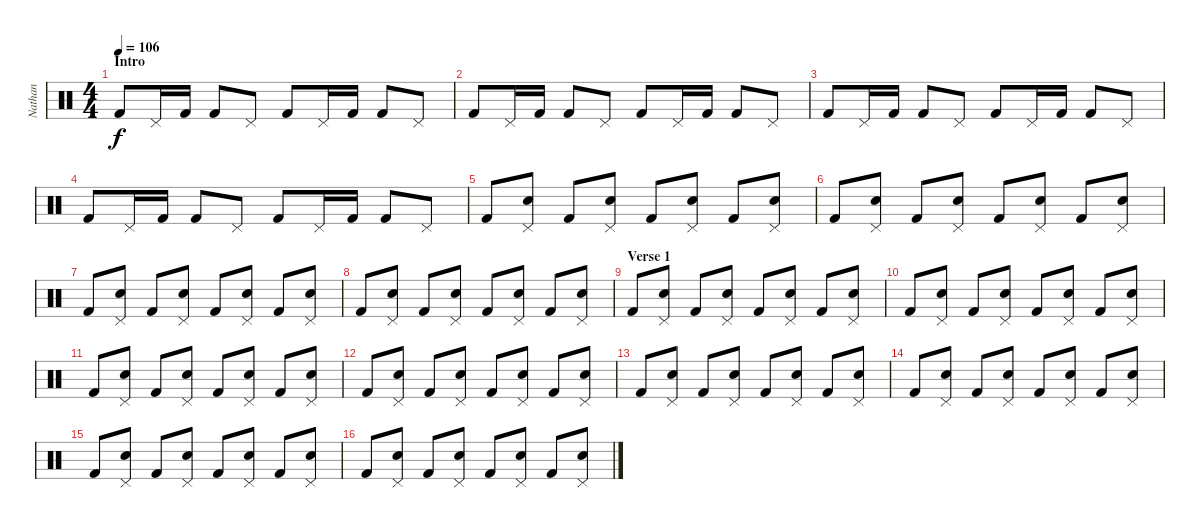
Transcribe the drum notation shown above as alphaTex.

\track ("Nathan" "Nathan") {instrument percussion}
\staff {score}
\articulation defaults
\ts (4 4)
\section ("" "Intro")
\tempo 106
\clef neutral
\ks c "Kick (hit) 2".8{dy f} "Pedal Hi-Hat (hit)".16 "Kick (hit) 2".16 "Kick (hit) 2".8 "Pedal Hi-Hat (hit)".8 "Kick (hit) 2".8 "Pedal Hi-Hat (hit)".16 "Kick (hit) 2".16 "Kick (hit) 2".8 "Pedal Hi-Hat (hit)".8
|
"Kick (hit) 2".8 "Pedal Hi-Hat (hit)".16 "Kick (hit) 2".16 "Kick (hit) 2".8 "Pedal Hi-Hat (hit)".8 "Kick (hit) 2".8 "Pedal Hi-Hat (hit)".16 "Kick (hit) 2".16 "Kick (hit) 2".8 "Pedal Hi-Hat (hit)".8 |
"Kick (hit) 2".8 "Pedal Hi-Hat (hit)".16 "Kick (hit) 2".16 "Kick (hit) 2".8 "Pedal Hi-Hat (hit)".8 "Kick (hit) 2".8 "Pedal Hi-Hat (hit)".16 "Kick (hit) 2".16 "Kick (hit) 2".8 "Pedal Hi-Hat (hit)".8 |
"Kick (hit) 2".8 "Pedal Hi-Hat (hit)".16 "Kick (hit) 2".16 "Kick (hit) 2".8 "Pedal Hi-Hat (hit)".8 "Kick (hit) 2".8 "Pedal Hi-Hat (hit)".16 "Kick (hit) 2".16 "Kick (hit) 2".8 "Pedal Hi-Hat (hit)".8 |
"Kick (hit) 2".8 ("Pedal Hi-Hat (hit)" "Snare (hit) 2").8 "Kick (hit) 2".8 ("Pedal Hi-Hat (hit)" "Snare (hit) 2").8 "Kick (hit) 2".8 ("Pedal Hi-Hat (hit)" "Snare (hit) 2").8 "Kick (hit) 2".8 ("Pedal Hi-Hat (hit)" "Snare (hit) 2").8 |
"Kick (hit) 2".8 ("Pedal Hi-Hat (hit)" "Snare (hit) 2").8 "Kick (hit) 2".8 ("Pedal Hi-Hat (hit)" "Snare (hit) 2").8 "Kick (hit) 2".8 ("Pedal Hi-Hat (hit)" "Snare (hit) 2").8 "Kick (hit) 2".8 ("Pedal Hi-Hat (hit)" "Snare (hit) 2").8 |
"Kick (hit) 2".8 ("Pedal Hi-Hat (hit)" "Snare (hit) 2").8 "Kick (hit) 2".8 ("Pedal Hi-Hat (hit)" "Snare (hit) 2").8 "Kick (hit) 2".8 ("Pedal Hi-Hat (hit)" "Snare (hit) 2").8 "Kick (hit) 2".8 ("Pedal Hi-Hat (hit)" "Snare (hit) 2").8 |
"Kick (hit) 2".8 ("Pedal Hi-Hat (hit)" "Snare (hit) 2").8 "Kick (hit) 2".8 ("Pedal Hi-Hat (hit)" "Snare (hit) 2").8 "Kick (hit) 2".8 ("Pedal Hi-Hat (hit)" "Snare (hit) 2").8 "Kick (hit) 2".8 ("Pedal Hi-Hat (hit)" "Snare (hit) 2").8 |
\section ("" "Verse 1")
"Kick (hit) 2".8 ("Pedal Hi-Hat (hit)" "Snare (hit) 2").8 "Kick (hit) 2".8 ("Pedal Hi-Hat (hit)" "Snare (hit) 2").8 "Kick (hit) 2".8 ("Pedal Hi-Hat (hit)" "Snare (hit) 2").8 "Kick (hit) 2".8 ("Pedal Hi-Hat (hit)" "Snare (hit) 2").8 |
"Kick (hit) 2".8 ("Pedal Hi-Hat (hit)" "Snare (hit) 2").8 "Kick (hit) 2".8 ("Pedal Hi-Hat (hit)" "Snare (hit) 2").8 "Kick (hit) 2".8 ("Pedal Hi-Hat (hit)" "Snare (hit) 2").8 "Kick (hit) 2".8 ("Pedal Hi-Hat (hit)" "Snare (hit) 2").8 |
"Kick (hit) 2".8 ("Pedal Hi-Hat (hit)" "Snare (hit) 2").8 "Kick (hit) 2".8 ("Pedal Hi-Hat (hit)" "Snare (hit) 2").8 "Kick (hit) 2".8 ("Pedal Hi-Hat (hit)" "Snare (hit) 2").8 "Kick (hit) 2".8 ("Pedal Hi-Hat (hit)" "Snare (hit) 2").8 |
"Kick (hit) 2".8 ("Pedal Hi-Hat (hit)" "Snare (hit) 2").8 "Kick (hit) 2".8 ("Pedal Hi-Hat (hit)" "Snare (hit) 2").8 "Kick (hit) 2".8 ("Pedal Hi-Hat (hit)" "Snare (hit) 2").8 "Kick (hit) 2".8 ("Pedal Hi-Hat (hit)" "Snare (hit) 2").8 |
"Kick (hit) 2".8 ("Pedal Hi-Hat (hit)" "Snare (hit) 2").8 "Kick (hit) 2".8 ("Pedal Hi-Hat (hit)" "Snare (hit) 2").8 "Kick (hit) 2".8 ("Pedal Hi-Hat (hit)" "Snare (hit) 2").8 "Kick (hit) 2".8 ("Pedal Hi-Hat (hit)" "Snare (hit) 2").8 |
"Kick (hit) 2".8 ("Pedal Hi-Hat (hit)" "Snare (hit) 2").8 "Kick (hit) 2".8 ("Pedal Hi-Hat (hit)" "Snare (hit) 2").8 "Kick (hit) 2".8 ("Pedal Hi-Hat (hit)" "Snare (hit) 2").8 "Kick (hit) 2".8 ("Pedal Hi-Hat (hit)" "Snare (hit) 2").8 |
"Kick (hit) 2".8 ("Pedal Hi-Hat (hit)" "Snare (hit) 2").8 "Kick (hit) 2".8 ("Pedal Hi-Hat (hit)" "Snare (hit) 2").8 "Kick (hit) 2".8 ("Pedal Hi-Hat (hit)" "Snare (hit) 2").8 "Kick (hit) 2".8 ("Pedal Hi-Hat (hit)" "Snare (hit) 2").8 |
"Kick (hit) 2".8 ("Pedal Hi-Hat (hit)" "Snare (hit) 2").8 "Kick (hit) 2".8 ("Pedal Hi-Hat (hit)" "Snare (hit) 2").8 "Kick (hit) 2".8 ("Pedal Hi-Hat (hit)" "Snare (hit) 2").8 "Kick (hit) 2".8 ("Pedal Hi-Hat (hit)" "Snare (hit) 2").8
